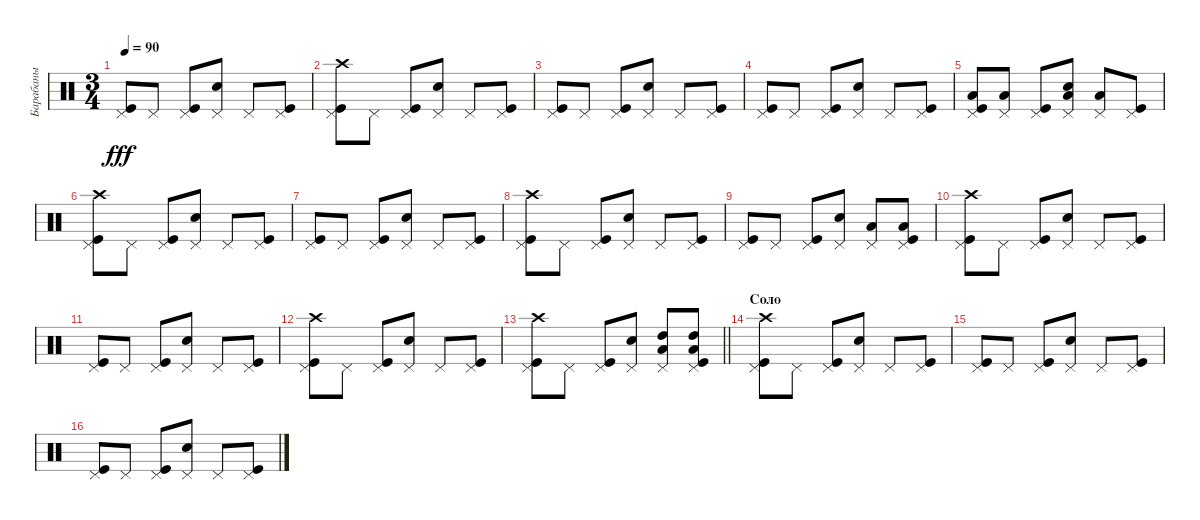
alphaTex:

\track ("Барабаны" "Барабаны") {instrument percussion}
\staff {score}
\articulation defaults
\ts (3 4)
\tempo 90
\clef neutral
\ks c
("Kick (hit)" "Pedal Hi-Hat (hit)").8{dy fff} "Pedal Hi-Hat (hit)".8 ("Kick (hit)" "Pedal Hi-Hat (hit)").8 ("Snare (hit) 2" "Pedal Hi-Hat (hit)").8 "Pedal Hi-Hat (hit)".8 ("Kick (hit)" "Pedal Hi-Hat (hit)").8 |
("Kick (hit)" "Pedal Hi-Hat (hit)" "Crash high (hit)").8 "Pedal Hi-Hat (hit)".8 ("Kick (hit)" "Pedal Hi-Hat (hit)").8 ("Snare (hit) 2" "Pedal Hi-Hat (hit)").8 "Pedal Hi-Hat (hit)".8 ("Kick (hit)" "Pedal Hi-Hat (hit)").8 |
("Kick (hit)" "Pedal Hi-Hat (hit)").8 "Pedal Hi-Hat (hit)".8 ("Kick (hit)" "Pedal Hi-Hat (hit)").8 ("Snare (hit) 2" "Pedal Hi-Hat (hit)").8 "Pedal Hi-Hat (hit)".8 ("Kick (hit)" "Pedal Hi-Hat (hit)").8 |
("Kick (hit)" "Pedal Hi-Hat (hit)").8 "Pedal Hi-Hat (hit)".8 ("Kick (hit)" "Pedal Hi-Hat (hit)").8 ("Snare (hit) 2" "Pedal Hi-Hat (hit)").8 "Pedal Hi-Hat (hit)".8 ("Kick (hit)" "Pedal Hi-Hat (hit)").8 |
("Kick (hit)" "Pedal Hi-Hat (hit)" "Low Floor Tom (hit)").8 ("Pedal Hi-Hat (hit)" "Low Floor Tom (hit)").8 ("Kick (hit)" "Pedal Hi-Hat (hit)").8 ("Snare (hit) 2" "Pedal Hi-Hat (hit)" "Low Tom (hit)").8 ("Pedal Hi-Hat (hit)" "Low Tom (hit)").8 ("Kick (hit)" "Pedal Hi-Hat (hit)").8 |
("Kick (hit)" "Pedal Hi-Hat (hit)" "Crash high (hit)").8 "Pedal Hi-Hat (hit)".8 ("Kick (hit)" "Pedal Hi-Hat (hit)").8 ("Snare (hit) 2" "Pedal Hi-Hat (hit)").8 "Pedal Hi-Hat (hit)".8 ("Kick (hit)" "Pedal Hi-Hat (hit)").8 |
("Kick (hit)" "Pedal Hi-Hat (hit)").8 "Pedal Hi-Hat (hit)".8 ("Kick (hit)" "Pedal Hi-Hat (hit)").8 ("Snare (hit) 2" "Pedal Hi-Hat (hit)").8 "Pedal Hi-Hat (hit)".8 ("Kick (hit)" "Pedal Hi-Hat (hit)").8 |
("Kick (hit)" "Pedal Hi-Hat (hit)" "Crash high (hit)").8 "Pedal Hi-Hat (hit)".8 ("Kick (hit)" "Pedal Hi-Hat (hit)").8 ("Snare (hit) 2" "Pedal Hi-Hat (hit)").8 "Pedal Hi-Hat (hit)".8 ("Kick (hit)" "Pedal Hi-Hat (hit)").8 |
("Kick (hit)" "Pedal Hi-Hat (hit)").8 "Pedal Hi-Hat (hit)".8 ("Kick (hit)" "Pedal Hi-Hat (hit)").8 ("Snare (hit) 2" "Pedal Hi-Hat (hit)").8 ("Pedal Hi-Hat (hit)" "Low Tom (hit)").8 ("Kick (hit)" "Pedal Hi-Hat (hit)" "Low Floor Tom (hit)").8 |
("Kick (hit)" "Pedal Hi-Hat (hit)" "Crash high (hit)").8 "Pedal Hi-Hat (hit)".8 ("Kick (hit)" "Pedal Hi-Hat (hit)").8 ("Snare (hit) 2" "Pedal Hi-Hat (hit)").8 "Pedal Hi-Hat (hit)".8 ("Kick (hit)" "Pedal Hi-Hat (hit)").8 |
("Kick (hit)" "Pedal Hi-Hat (hit)").8 "Pedal Hi-Hat (hit)".8 ("Kick (hit)" "Pedal Hi-Hat (hit)").8 ("Snare (hit) 2" "Pedal Hi-Hat (hit)").8 "Pedal Hi-Hat (hit)".8 ("Kick (hit)" "Pedal Hi-Hat (hit)").8 |
("Kick (hit)" "Pedal Hi-Hat (hit)" "Crash high (hit)").8 "Pedal Hi-Hat (hit)".8 ("Kick (hit)" "Pedal Hi-Hat (hit)").8 ("Snare (hit) 2" "Pedal Hi-Hat (hit)").8 "Pedal Hi-Hat (hit)".8 ("Kick (hit)" "Pedal Hi-Hat (hit)").8 |
\barLineRight lightlight
("Kick (hit)" "Pedal Hi-Hat (hit)" "Crash high (hit)").8 "Pedal Hi-Hat (hit)".8 ("Kick (hit)" "Pedal Hi-Hat (hit)").8 ("Snare (hit) 2" "Pedal Hi-Hat (hit)").8 ("Pedal Hi-Hat (hit)" "Low Floor Tom (hit)" "High Tom (hit)").8 ("Kick (hit)" "Pedal Hi-Hat (hit)" "Low Floor Tom (hit)" "High Tom (hit)").8 |
\section ("" "Соло")
("Kick (hit)" "Pedal Hi-Hat (hit)" "Crash high (hit)").8 "Pedal Hi-Hat (hit)".8 ("Kick (hit)" "Pedal Hi-Hat (hit)").8 ("Snare (hit) 2" "Pedal Hi-Hat (hit)").8 "Pedal Hi-Hat (hit)".8 ("Kick (hit)" "Pedal Hi-Hat (hit)").8 |
("Kick (hit)" "Pedal Hi-Hat (hit)").8 "Pedal Hi-Hat (hit)".8 ("Kick (hit)" "Pedal Hi-Hat (hit)").8 ("Snare (hit) 2" "Pedal Hi-Hat (hit)").8 "Pedal Hi-Hat (hit)".8 ("Kick (hit)" "Pedal Hi-Hat (hit)").8 |
("Kick (hit)" "Pedal Hi-Hat (hit)").8 "Pedal Hi-Hat (hit)".8 ("Kick (hit)" "Pedal Hi-Hat (hit)").8 ("Snare (hit) 2" "Pedal Hi-Hat (hit)").8 "Pedal Hi-Hat (hit)".8 ("Kick (hit)" "Pedal Hi-Hat (hit)").8
